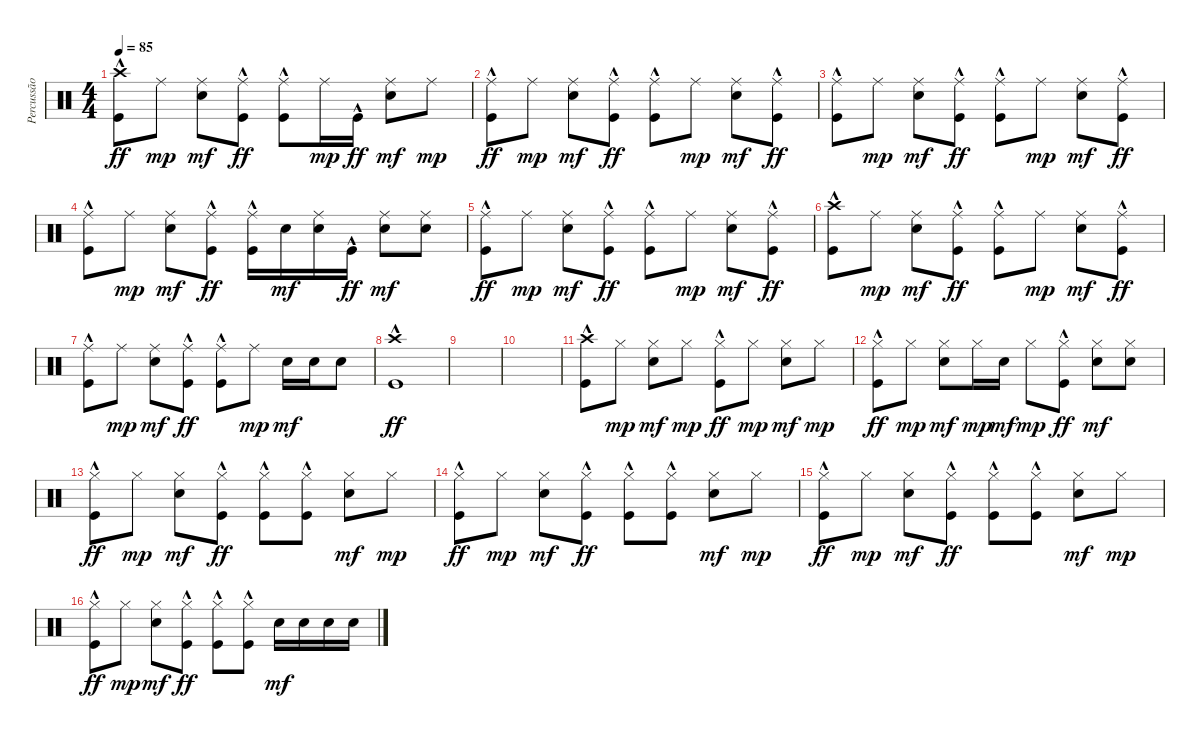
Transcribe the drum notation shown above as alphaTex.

\track ("Percussão" "Percussão") {instrument percussion}
\staff {score}
\articulation defaults
\ts (4 4)
\tempo 85
\clef neutral
\ks c
("Crash high (hit)" "Kick (hit)"{hac}).8{dy ff} "Ride (middle)".8{dy mp} ("Ride (middle)" "Snare (hit) 2").8{dy mf} ("Ride (middle)" "Kick (hit)"{hac}).8{dy ff} ("Ride (middle)" "Kick (hit)"{hac}).8 "Ride (middle)".16{dy mp} "Kick (hit)"{hac}.16{dy ff} ("Ride (middle)" "Snare (hit) 2").8{dy mf} "Ride (middle)".8{dy mp} |
("Ride (middle)" "Kick (hit)"{hac}).8{dy ff} "Ride (middle)".8{dy mp} ("Ride (middle)" "Snare (hit) 2").8{dy mf} ("Ride (middle)" "Kick (hit)"{hac}).8{dy ff} ("Ride (middle)" "Kick (hit)"{hac}).8 "Ride (middle)".8{dy mp} ("Ride (middle)" "Snare (hit) 2").8{dy mf} ("Ride (middle)" "Kick (hit)"{hac}).8{dy ff} |
("Ride (middle)" "Kick (hit)"{hac}).8 "Ride (middle)".8{dy mp} ("Ride (middle)" "Snare (hit) 2").8{dy mf} ("Ride (middle)" "Kick (hit)"{hac}).8{dy ff} ("Ride (middle)" "Kick (hit)"{hac}).8 "Ride (middle)".8{dy mp} ("Ride (middle)" "Snare (hit) 2").8{dy mf} ("Ride (middle)" "Kick (hit)"{hac}).8{dy ff} |
("Ride (middle)" "Kick (hit)"{hac}).8 "Ride (middle)".8{dy mp} ("Ride (middle)" "Snare (hit) 2").8{dy mf} ("Ride (middle)" "Kick (hit)"{hac}).8{dy ff} ("Ride (middle)" "Kick (hit)"{hac}).16 "Snare (hit) 2".16{dy mf} ("Ride (middle)" "Snare (hit) 2").16 "Kick (hit)"{hac}.16{dy ff} ("Ride (middle)" "Snare (hit) 2").8{dy mf} ("Ride (middle)" "Snare (hit) 2").8 |
("Ride (middle)" "Kick (hit)"{hac}).8{dy ff} "Ride (middle)".8{dy mp} ("Ride (middle)" "Snare (hit) 2").8{dy mf} ("Ride (middle)" "Kick (hit)"{hac}).8{dy ff} ("Ride (middle)" "Kick (hit)"{hac}).8 "Ride (middle)".8{dy mp} ("Ride (middle)" "Snare (hit) 2").8{dy mf} ("Ride (middle)" "Kick (hit)"{hac}).8{dy ff} |
("Crash high (hit)" "Kick (hit)"{hac}).8 "Ride (middle)".8{dy mp} ("Ride (middle)" "Snare (hit) 2").8{dy mf} ("Ride (middle)" "Kick (hit)"{hac}).8{dy ff} ("Ride (middle)" "Kick (hit)"{hac}).8 "Ride (middle)".8{dy mp} ("Ride (middle)" "Snare (hit) 2").8{dy mf} ("Ride (middle)" "Kick (hit)"{hac}).8{dy ff} |
("Ride (middle)" "Kick (hit)"{hac}).8 "Ride (middle)".8{dy mp} ("Ride (middle)" "Snare (hit) 2").8{dy mf} ("Ride (middle)" "Kick (hit)"{hac}).8{dy ff} ("Ride (middle)" "Kick (hit)"{hac}).8 "Ride (middle)".8{dy mp} "Snare (hit) 2".16{dy mf} "Snare (hit) 2".16 "Snare (hit) 2".8 |
("Crash high (hit)" "Kick (hit)"{hac}).1{dy ff} |
|
|
("Crash high (hit)" "Kick (hit)"{hac}).8 "Hi-Hat (closed)".8{dy mp} ("Hi-Hat (closed)" "Snare (hit) 2").8{dy mf} "Hi-Hat (closed)".8{dy mp} ("Hi-Hat (closed)" "Kick (hit)"{hac}).8{dy ff} "Hi-Hat (closed)".8{dy mp} ("Hi-Hat (closed)" "Snare (hit) 2").8{dy mf} "Hi-Hat (closed)".8{dy mp} |
("Hi-Hat (closed)" "Kick (hit)"{hac}).8{dy ff} "Hi-Hat (closed)".8{dy mp} ("Hi-Hat (closed)" "Snare (hit) 2").8{dy mf} "Hi-Hat (closed)".16{dy mp} "Snare (hit) 2".16{dy mf} "Hi-Hat (closed)".8{dy mp} ("Hi-Hat (closed)" "Kick (hit)"{hac}).8{dy ff} ("Hi-Hat (closed)" "Snare (hit) 2").8{dy mf} ("Hi-Hat (closed)" "Snare (hit) 2").8 |
("Hi-Hat (closed)" "Kick (hit)"{hac}).8{dy ff} "Hi-Hat (closed)".8{dy mp} ("Hi-Hat (closed)" "Snare (hit) 2").8{dy mf} ("Hi-Hat (closed)" "Kick (hit)"{hac}).8{dy ff} ("Hi-Hat (closed)" "Kick (hit)"{hac}).8 ("Hi-Hat (closed)" "Kick (hit)"{hac}).8 ("Hi-Hat (closed)" "Snare (hit) 2").8{dy mf} "Hi-Hat (closed)".8{dy mp} |
("Hi-Hat (closed)" "Kick (hit)"{hac}).8{dy ff} "Hi-Hat (closed)".8{dy mp} ("Hi-Hat (closed)" "Snare (hit) 2").8{dy mf} ("Hi-Hat (closed)" "Kick (hit)"{hac}).8{dy ff} ("Hi-Hat (closed)" "Kick (hit)"{hac}).8 ("Hi-Hat (closed)" "Kick (hit)"{hac}).8 ("Hi-Hat (closed)" "Snare (hit) 2").8{dy mf} "Hi-Hat (closed)".8{dy mp} |
("Hi-Hat (closed)" "Kick (hit)"{hac}).8{dy ff} "Hi-Hat (closed)".8{dy mp} ("Hi-Hat (closed)" "Snare (hit) 2").8{dy mf} ("Hi-Hat (closed)" "Kick (hit)"{hac}).8{dy ff} ("Hi-Hat (closed)" "Kick (hit)"{hac}).8 ("Hi-Hat (closed)" "Kick (hit)"{hac}).8 ("Hi-Hat (closed)" "Snare (hit) 2").8{dy mf} "Hi-Hat (closed)".8{dy mp} |
("Hi-Hat (closed)" "Kick (hit)"{hac}).8{dy ff} "Hi-Hat (closed)".8{dy mp} ("Hi-Hat (closed)" "Snare (hit) 2").8{dy mf} ("Hi-Hat (closed)" "Kick (hit)"{hac}).8{dy ff} ("Hi-Hat (closed)" "Kick (hit)"{hac}).8 ("Hi-Hat (closed)" "Kick (hit)"{hac}).8 "Snare (hit) 2".16{dy mf} "Snare (hit) 2".16 "Snare (hit) 2".16 "Snare (hit) 2".16
